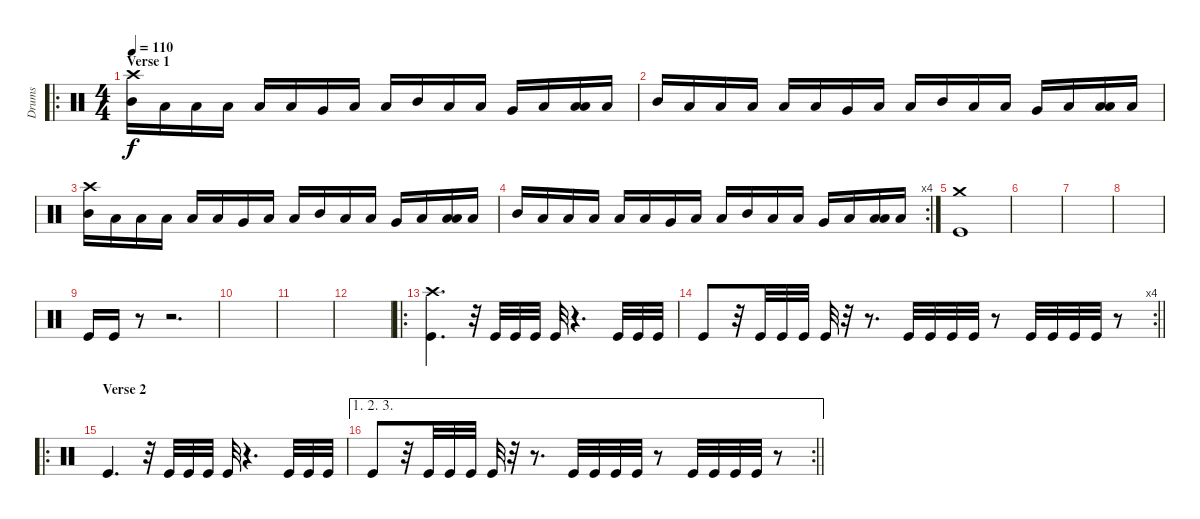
\track ("Drums" "Drums") {instrument percussion}
\staff {score}
\articulation defaults
\ro
\ts (4 4)
\section ("" "Verse 1")
\tempo 110
\clef neutral
\ks c
("Crash high (hit)" "Mid Tom (hit)").16{dy f} "Low Floor Tom (hit)".16 "Low Floor Tom (hit)".16 "Low Tom (hit)".16 "Low Floor Tom (hit)".16 "Low Floor Tom (hit)".16 "Very Low Tom (hit)".16 "Low Floor Tom (hit)".16 "Low Tom (hit)".16 "Mid Tom (hit)".16 "Low Floor Tom (hit)".16 "Low Floor Tom (hit)".16 "Very Low Tom (hit)".16 "Low Floor Tom (hit)".16 ("Low Tom (hit)" "Low Floor Tom (hit)").16 "Low Floor Tom (hit)".16 |
"Mid Tom (hit)".16 "Low Floor Tom (hit)".16 "Low Floor Tom (hit)".16 "Low Tom (hit)".16 "Low Floor Tom (hit)".16 "Low Floor Tom (hit)".16 "Very Low Tom (hit)".16 "Low Floor Tom (hit)".16 "Low Tom (hit)".16 "Mid Tom (hit)".16 "Low Floor Tom (hit)".16 "Low Floor Tom (hit)".16 "Very Low Tom (hit)".16 "Low Floor Tom (hit)".16 ("Low Tom (hit)" "Low Floor Tom (hit)").16 "Low Floor Tom (hit)".16 |
("Crash high (hit)" "Mid Tom (hit)").16 "Low Floor Tom (hit)".16 "Low Floor Tom (hit)".16 "Low Tom (hit)".16 "Low Floor Tom (hit)".16 "Low Floor Tom (hit)".16 "Very Low Tom (hit)".16 "Low Floor Tom (hit)".16 "Low Tom (hit)".16 "Mid Tom (hit)".16 "Low Floor Tom (hit)".16 "Low Floor Tom (hit)".16 "Very Low Tom (hit)".16 "Low Floor Tom (hit)".16 ("Low Tom (hit)" "Low Floor Tom (hit)").16 "Low Floor Tom (hit)".16 |
\rc 4 "Mid Tom (hit)".16 "Low Floor Tom (hit)".16 "Low Floor Tom (hit)".16 "Low Tom (hit)".16 "Low Floor Tom (hit)".16 "Low Floor Tom (hit)".16 "Very Low Tom (hit)".16 "Low Floor Tom (hit)".16 "Low Tom (hit)".16 "Mid Tom (hit)".16 "Low Floor Tom (hit)".16 "Low Floor Tom (hit)".16 "Very Low Tom (hit)".16 "Low Floor Tom (hit)".16
("Low Tom (hit)" "Low Floor Tom (hit)").16 "Low Floor Tom (hit)".16 |
("Crash medium (hit)" "Kick (hit)").1 |
|
|
|
"Kick (hit)".16 "Kick (hit)".16 r.8 r.2{d} |
|
|
|
\ro
("Crash high (hit)" "Kick (hit)").4{d} r.32 "Kick (hit)".32 "Kick (hit)".32 "Kick (hit)".32 "Kick (hit)".32 r.4{d} "Kick (hit)".32 "Kick (hit)".32 "Kick (hit)".32 |
\rc 4
\barLineRight lightlight "Kick (hit)".8
r.32 "Kick (hit)".32 "Kick (hit)".32 "Kick (hit)".32 "Kick (hit)".32 r.32 r.8{d} "Kick (hit)".32 "Kick (hit)".32 "Kick (hit)".32 "Kick (hit)".32 r.8 "Kick (hit)".32 "Kick (hit)".32 "Kick (hit)".32 "Kick (hit)".32 r.8 |
\ro
\section ("" "Verse 2")
"Kick (hit)".4{d} r.32 "Kick (hit)".32 "Kick (hit)".32 "Kick (hit)".32 "Kick (hit)".32 r.4{d} "Kick (hit)".32 "Kick (hit)".32 "Kick (hit)".32 |
\ae (1 2 3)
\rc 2
\barLineRight lightlight "Kick (hit)".8
r.32 "Kick (hit)".32 "Kick (hit)".32 "Kick (hit)".32 "Kick (hit)".32 r.32 r.8{d} "Kick (hit)".32 "Kick (hit)".32 "Kick (hit)".32 "Kick (hit)".32 r.8 "Kick (hit)".32 "Kick (hit)".32 "Kick (hit)".32 "Kick (hit)".32 r.8
